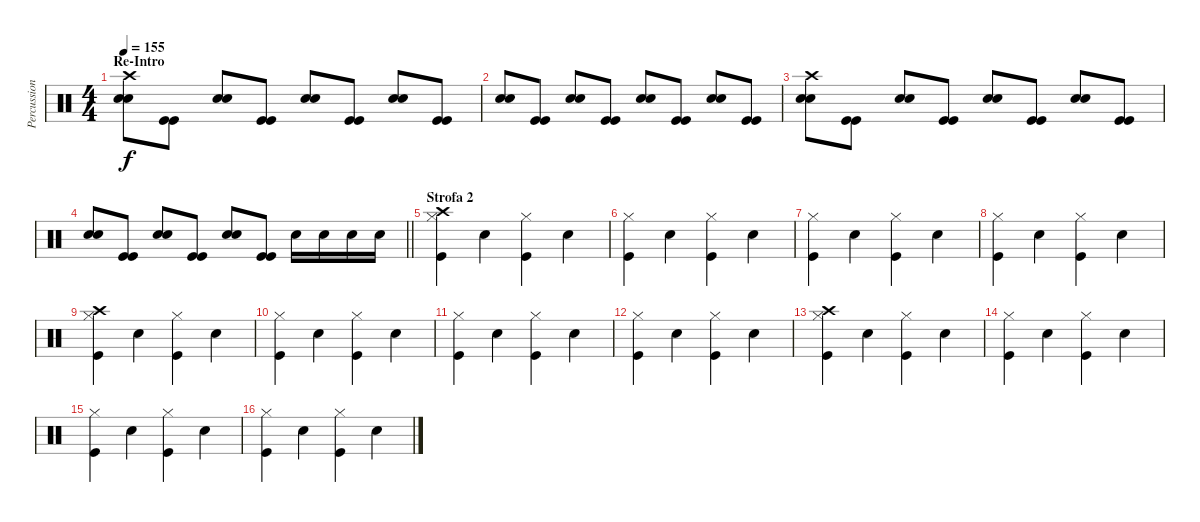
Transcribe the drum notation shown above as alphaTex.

\track ("Percussioni" "Percussion") {instrument percussion}
\staff {score}
\articulation defaults
\ts (4 4)
\section ("" "Re-Intro")
\tempo 155
\clef neutral
\ks c
("Snare (hit) 2" "Snare (hit) 2" "Crash high (hit)").8{dy f} ("Kick (hit)" "Kick (hit)").8 ("Snare (hit) 2" "Snare (hit) 2").8 ("Kick (hit)" "Kick (hit)").8 ("Snare (hit) 2" "Snare (hit) 2").8 ("Kick (hit)" "Kick (hit)").8 ("Snare (hit) 2" "Snare (hit) 2").8 ("Kick (hit)" "Kick (hit)").8 |
("Snare (hit) 2" "Snare (hit) 2").8 ("Kick (hit)" "Kick (hit)").8 ("Snare (hit) 2" "Snare (hit) 2").8 ("Kick (hit)" "Kick (hit)").8 ("Snare (hit) 2" "Snare (hit) 2").8 ("Kick (hit)" "Kick (hit)").8 ("Snare (hit) 2" "Snare (hit) 2").8 ("Kick (hit)" "Kick (hit)").8 |
("Snare (hit) 2" "Snare (hit) 2" "Crash high (hit)").8 ("Kick (hit)" "Kick (hit)").8 ("Snare (hit) 2" "Snare (hit) 2").8 ("Kick (hit)" "Kick (hit)").8 ("Snare (hit) 2" "Snare (hit) 2").8 ("Kick (hit)" "Kick (hit)").8 ("Snare (hit) 2" "Snare (hit) 2").8 ("Kick (hit)" "Kick (hit)").8 |
\barLineRight lightlight
("Snare (hit) 2" "Snare (hit) 2").8 ("Kick (hit)" "Kick (hit)").8 ("Snare (hit) 2" "Snare (hit) 2").8 ("Kick (hit)" "Kick (hit)").8 ("Snare (hit) 2" "Snare (hit) 2").8 ("Kick (hit)" "Kick (hit)").8 "Snare (hit) 2".16 "Snare (hit) 2".16 "Snare (hit) 2".16 "Snare (hit) 2".16 |
\section ("" "Strofa 2")
("Hi-Hat (closed)" "Kick (hit)" "Crash high (hit)").4 "Snare (hit) 2".4 ("Hi-Hat (closed)" "Kick (hit)").4 "Snare (hit) 2".4 |
("Hi-Hat (closed)" "Kick (hit)").4 "Snare (hit) 2".4 ("Hi-Hat (closed)" "Kick (hit)").4 "Snare (hit) 2".4 |
("Hi-Hat (closed)" "Kick (hit)").4 "Snare (hit) 2".4 ("Hi-Hat (closed)" "Kick (hit)").4 "Snare (hit) 2".4 |
("Hi-Hat (closed)" "Kick (hit)").4 "Snare (hit) 2".4 ("Hi-Hat (closed)" "Kick (hit)").4 "Snare (hit) 2".4 |
("Hi-Hat (closed)" "Kick (hit)" "Crash high (hit)").4 "Snare (hit) 2".4 ("Hi-Hat (closed)" "Kick (hit)").4 "Snare (hit) 2".4 |
("Hi-Hat (closed)" "Kick (hit)").4 "Snare (hit) 2".4 ("Hi-Hat (closed)" "Kick (hit)").4 "Snare (hit) 2".4 |
("Hi-Hat (closed)" "Kick (hit)").4 "Snare (hit) 2".4 ("Hi-Hat (closed)" "Kick (hit)").4 "Snare (hit) 2".4 |
("Hi-Hat (closed)" "Kick (hit)").4 "Snare (hit) 2".4 ("Hi-Hat (closed)" "Kick (hit)").4 "Snare (hit) 2".4 |
("Hi-Hat (closed)" "Kick (hit)" "Crash high (hit)").4 "Snare (hit) 2".4 ("Hi-Hat (closed)" "Kick (hit)").4 "Snare (hit) 2".4 |
("Hi-Hat (closed)" "Kick (hit)").4 "Snare (hit) 2".4 ("Hi-Hat (closed)" "Kick (hit)").4 "Snare (hit) 2".4 |
("Hi-Hat (closed)" "Kick (hit)").4 "Snare (hit) 2".4 ("Hi-Hat (closed)" "Kick (hit)").4 "Snare (hit) 2".4 |
("Hi-Hat (closed)" "Kick (hit)").4 "Snare (hit) 2".4 ("Hi-Hat (closed)" "Kick (hit)").4 "Snare (hit) 2".4
